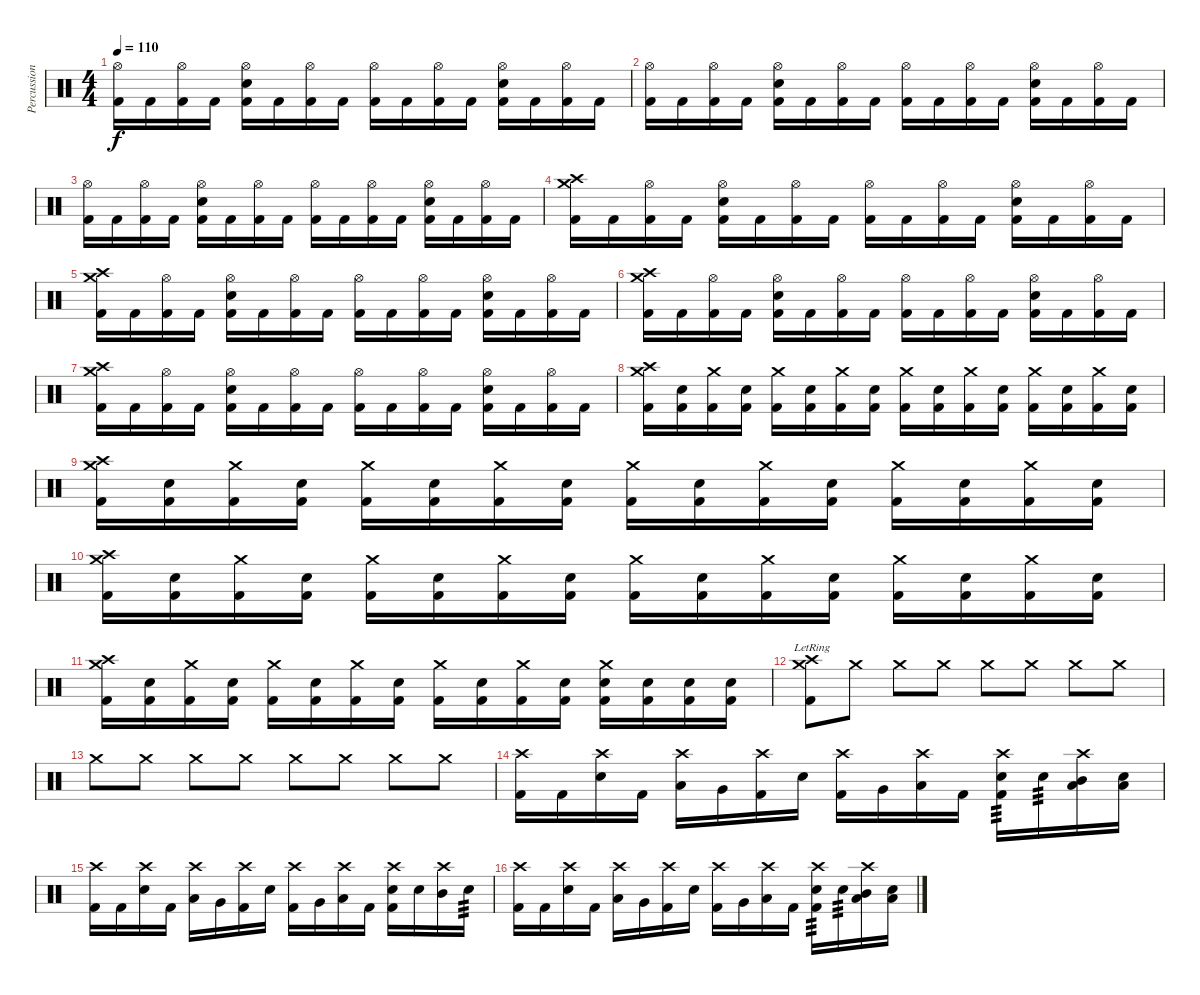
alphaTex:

\track ("Percussion" "Percussion") {instrument percussion}
\staff {score}
\articulation defaults
\ts (4 4)
\tempo 110
\clef neutral
\ks c
("Hi-Hat (open)" "Kick (hit) 2").16{dy f} "Kick (hit) 2".16 ("Hi-Hat (open)" "Kick (hit) 2").16 "Kick (hit) 2".16 ("Hi-Hat (open)" "Electric Snare (hit)" "Kick (hit) 2").16 "Kick (hit) 2".16 ("Hi-Hat (open)" "Kick (hit) 2").16 "Kick (hit) 2".16 ("Hi-Hat (open)" "Kick (hit) 2").16 "Kick (hit) 2".16 ("Hi-Hat (open)" "Kick (hit) 2").16 "Kick (hit) 2".16 ("Hi-Hat (open)" "Electric Snare (hit)" "Kick (hit) 2").16 "Kick (hit) 2".16 ("Hi-Hat (open)" "Kick (hit) 2").16 "Kick (hit) 2".16 |
("Hi-Hat (open)" "Kick (hit) 2").16 "Kick (hit) 2".16 ("Hi-Hat (open)" "Kick (hit) 2").16 "Kick (hit) 2".16 ("Hi-Hat (open)" "Electric Snare (hit)" "Kick (hit) 2").16 "Kick (hit) 2".16 ("Hi-Hat (open)" "Kick (hit) 2").16 "Kick (hit) 2".16 ("Hi-Hat (open)" "Kick (hit) 2").16 "Kick (hit) 2".16 ("Hi-Hat (open)" "Kick (hit) 2").16 "Kick (hit) 2".16 ("Hi-Hat (open)" "Electric Snare (hit)" "Kick (hit) 2").16 "Kick (hit) 2".16 ("Hi-Hat (open)" "Kick (hit) 2").16 "Kick (hit) 2".16 |
("Hi-Hat (open)" "Kick (hit) 2").16 "Kick (hit) 2".16 ("Hi-Hat (open)" "Kick (hit) 2").16 "Kick (hit) 2".16 ("Hi-Hat (open)" "Electric Snare (hit)" "Kick (hit) 2").16 "Kick (hit) 2".16 ("Hi-Hat (open)" "Kick (hit) 2").16 "Kick (hit) 2".16 ("Hi-Hat (open)" "Kick (hit) 2").16 "Kick (hit) 2".16 ("Hi-Hat (open)" "Kick (hit) 2").16 "Kick (hit) 2".16 ("Hi-Hat (open)" "Electric Snare (hit)" "Kick (hit) 2").16 "Kick (hit) 2".16 ("Hi-Hat (open)" "Kick (hit) 2").16 "Kick (hit) 2".16 |
("Crash high (hit)" "Crash medium (hit)" "Kick (hit) 2").16 "Kick (hit) 2".16 ("Hi-Hat (open)" "Kick (hit) 2").16 "Kick (hit) 2".16 ("Hi-Hat (open)" "Electric Snare (hit)" "Kick (hit) 2").16 "Kick (hit) 2".16 ("Hi-Hat (open)" "Kick (hit) 2").16 "Kick (hit) 2".16 ("Hi-Hat (open)" "Kick (hit) 2").16 "Kick (hit) 2".16 ("Hi-Hat (open)" "Kick (hit) 2").16 "Kick (hit) 2".16 ("Hi-Hat (open)" "Electric Snare (hit)" "Kick (hit) 2").16 "Kick (hit) 2".16 ("Hi-Hat (open)" "Kick (hit) 2").16 "Kick (hit) 2".16 |
("Crash high (hit)" "Crash medium (hit)" "Kick (hit) 2").16 "Kick (hit) 2".16 ("Hi-Hat (open)" "Kick (hit) 2").16 "Kick (hit) 2".16 ("Hi-Hat (open)" "Electric Snare (hit)" "Kick (hit) 2").16 "Kick (hit) 2".16 ("Hi-Hat (open)" "Kick (hit) 2").16 "Kick (hit) 2".16 ("Hi-Hat (open)" "Kick (hit) 2").16 "Kick (hit) 2".16 ("Hi-Hat (open)" "Kick (hit) 2").16 "Kick (hit) 2".16 ("Hi-Hat (open)" "Electric Snare (hit)" "Kick (hit) 2").16 "Kick (hit) 2".16 ("Hi-Hat (open)" "Kick (hit) 2").16 "Kick (hit) 2".16 |
("Crash high (hit)" "Crash medium (hit)" "Kick (hit) 2").16 "Kick (hit) 2".16 ("Hi-Hat (open)" "Kick (hit) 2").16 "Kick (hit) 2".16 ("Hi-Hat (open)" "Electric Snare (hit)" "Kick (hit) 2").16 "Kick (hit) 2".16 ("Hi-Hat (open)" "Kick (hit) 2").16 "Kick (hit) 2".16 ("Hi-Hat (open)" "Kick (hit) 2").16 "Kick (hit) 2".16 ("Hi-Hat (open)" "Kick (hit) 2").16 "Kick (hit) 2".16 ("Hi-Hat (open)" "Electric Snare (hit)" "Kick (hit) 2").16 "Kick (hit) 2".16 ("Hi-Hat (open)" "Kick (hit) 2").16 "Kick (hit) 2".16 |
("Crash high (hit)" "Crash medium (hit)" "Kick (hit) 2").16 "Kick (hit) 2".16 ("Hi-Hat (open)" "Kick (hit) 2").16 "Kick (hit) 2".16 ("Hi-Hat (open)" "Electric Snare (hit)" "Kick (hit) 2").16 "Kick (hit) 2".16 ("Hi-Hat (open)" "Kick (hit) 2").16 "Kick (hit) 2".16 ("Hi-Hat (open)" "Kick (hit) 2").16 "Kick (hit) 2".16 ("Hi-Hat (open)" "Kick (hit) 2").16 "Kick (hit) 2".16 ("Hi-Hat (open)" "Electric Snare (hit)" "Kick (hit) 2").16 "Kick (hit) 2".16 ("Hi-Hat (open)" "Kick (hit) 2").16 "Kick (hit) 2".16 |
("Crash high (hit)" "Crash medium (hit)" "Kick (hit) 2").16 ("Electric Snare (hit)" "Kick (hit) 2").16 ("Crash medium (hit)" "Kick (hit) 2").16 ("Electric Snare (hit)" "Kick (hit) 2").16 ("Crash medium (hit)" "Kick (hit) 2").16 ("Electric Snare (hit)" "Kick (hit) 2").16 ("Crash medium (hit)" "Kick (hit) 2").16 ("Electric Snare (hit)" "Kick (hit) 2").16 ("Crash medium (hit)" "Kick (hit) 2").16 ("Electric Snare (hit)" "Kick (hit) 2").16 ("Crash medium (hit)" "Kick (hit) 2").16 ("Electric Snare (hit)" "Kick (hit) 2").16 ("Crash medium (hit)" "Kick (hit) 2").16 ("Electric Snare (hit)" "Kick (hit) 2").16 ("Crash medium (hit)" "Kick (hit) 2").16 ("Electric Snare (hit)" "Kick (hit) 2").16 |
("Crash high (hit)" "Crash medium (hit)" "Kick (hit) 2").16 ("Electric Snare (hit)" "Kick (hit) 2").16 ("Crash medium (hit)" "Kick (hit) 2").16 ("Electric Snare (hit)" "Kick (hit) 2").16 ("Crash medium (hit)" "Kick (hit) 2").16 ("Electric Snare (hit)" "Kick (hit) 2").16 ("Crash medium (hit)" "Kick (hit) 2").16 ("Electric Snare (hit)" "Kick (hit) 2").16 ("Crash medium (hit)" "Kick (hit) 2").16 ("Electric Snare (hit)" "Kick (hit) 2").16 ("Crash medium (hit)" "Kick (hit) 2").16 ("Electric Snare (hit)" "Kick (hit) 2").16 ("Crash medium (hit)" "Kick (hit) 2").16 ("Electric Snare (hit)" "Kick (hit) 2").16 ("Crash medium (hit)" "Kick (hit) 2").16 ("Electric Snare (hit)" "Kick (hit) 2").16 |
("Crash high (hit)" "Crash medium (hit)" "Kick (hit) 2").16 ("Electric Snare (hit)" "Kick (hit) 2").16 ("Crash medium (hit)" "Kick (hit) 2").16 ("Electric Snare (hit)" "Kick (hit) 2").16 ("Crash medium (hit)" "Kick (hit) 2").16 ("Electric Snare (hit)" "Kick (hit) 2").16 ("Crash medium (hit)" "Kick (hit) 2").16 ("Electric Snare (hit)" "Kick (hit) 2").16 ("Crash medium (hit)" "Kick (hit) 2").16 ("Electric Snare (hit)" "Kick (hit) 2").16 ("Crash medium (hit)" "Kick (hit) 2").16 ("Electric Snare (hit)" "Kick (hit) 2").16 ("Crash medium (hit)" "Kick (hit) 2").16 ("Electric Snare (hit)" "Kick (hit) 2").16 ("Crash medium (hit)" "Kick (hit) 2").16 ("Electric Snare (hit)" "Kick (hit) 2").16 |
("Crash high (hit)" "Crash medium (hit)" "Kick (hit) 2").16 ("Electric Snare (hit)" "Kick (hit) 2").16 ("Crash medium (hit)" "Kick (hit) 2").16 ("Electric Snare (hit)" "Kick (hit) 2").16 ("Crash medium (hit)" "Kick (hit) 2").16 ("Electric Snare (hit)" "Kick (hit) 2").16 ("Crash medium (hit)" "Kick (hit) 2").16 ("Electric Snare (hit)" "Kick (hit) 2").16 ("Crash medium (hit)" "Kick (hit) 2").16 ("Electric Snare (hit)" "Kick (hit) 2").16 ("Crash medium (hit)" "Kick (hit) 2").16 ("Electric Snare (hit)" "Kick (hit) 2").16 ("Crash medium (hit)" "Electric Snare (hit)" "Kick (hit) 2").16 ("Electric Snare (hit)" "Kick (hit) 2").16 ("Electric Snare (hit)" "Kick (hit) 2").16 ("Electric Snare (hit)" "Kick (hit) 2").16 |
("Crash medium (hit)" "Crash high (hit)"{lr} "Kick (hit) 2"{lr}).8 "Crash medium (hit)".8 "Crash medium (hit)".8 "Crash medium (hit)".8 "Crash medium (hit)".8 "Crash medium (hit)".8 "Crash medium (hit)".8 "Crash medium (hit)".8 |
"Crash medium (hit)".8 "Crash medium (hit)".8 "Crash medium (hit)".8 "Crash medium (hit)".8 "Crash medium (hit)".8 "Crash medium (hit)".8 "Crash medium (hit)".8 "Crash medium (hit)".8 |
("Crash high (hit)" "Kick (hit) 2").16 "Kick (hit) 2".16 ("Crash high (hit)" "Electric Snare (hit)").16 "Kick (hit) 2".16 ("Crash high (hit)" "Low Tom (hit)").16 "Very Low Tom (hit)".16 ("Crash high (hit)" "Kick (hit) 2").16 "Electric Snare (hit)".16 ("Crash high (hit)" "Kick (hit) 2").16 "Very Low Tom (hit)".16 ("Crash high (hit)" "Low Floor Tom (hit)").16 "Kick (hit) 2".16 ("Crash high (hit)" "Electric Snare (hit)" "Kick (hit) 2").16{tp 3} "Electric Snare (hit)".16{tp 3} ("Crash high (hit)" "Low Tom (hit)" "Mid Tom (hit)").16 ("Electric Snare (hit)" "Low Tom (hit)").16 |
("Crash high (hit)" "Kick (hit) 2").16 "Kick (hit) 2".16 ("Crash high (hit)" "Electric Snare (hit)").16 "Kick (hit) 2".16 ("Crash high (hit)" "Low Tom (hit)").16 "Very Low Tom (hit)".16 ("Crash high (hit)" "Kick (hit) 2").16 "Electric Snare (hit)".16 ("Crash high (hit)" "Kick (hit) 2").16 "Very Low Tom (hit)".16 ("Crash high (hit)" "Low Floor Tom (hit)").16 "Kick (hit) 2".16 ("Crash high (hit)" "Electric Snare (hit)" "Kick (hit) 2").16 "Electric Snare (hit)".16 ("Crash high (hit)" "Mid Tom (hit)").16 "Electric Snare (hit)".16{tp 3} |
("Crash high (hit)" "Kick (hit) 2").16 "Kick (hit) 2".16 ("Crash high (hit)" "Electric Snare (hit)").16 "Kick (hit) 2".16 ("Crash high (hit)" "Low Tom (hit)").16 "Very Low Tom (hit)".16 ("Crash high (hit)" "Kick (hit) 2").16 "Electric Snare (hit)".16 ("Crash high (hit)" "Kick (hit) 2").16 "Very Low Tom (hit)".16 ("Crash high (hit)" "Low Floor Tom (hit)").16 "Kick (hit) 2".16 ("Crash high (hit)" "Electric Snare (hit)" "Kick (hit) 2").16{tp 3} "Electric Snare (hit)".16{tp 3} ("Crash high (hit)" "Low Tom (hit)" "Mid Tom (hit)").16 ("Electric Snare (hit)" "Low Tom (hit)").16
